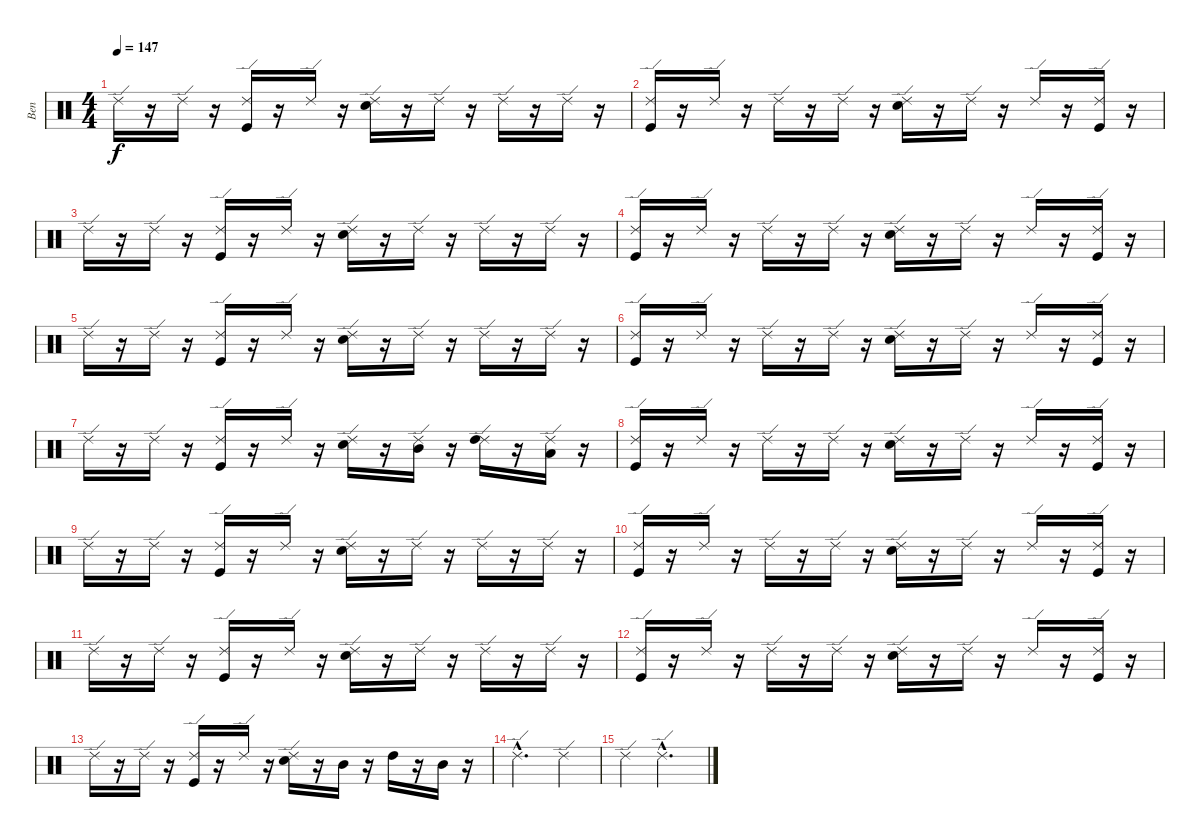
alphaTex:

\track ("Ben" "Ben") {instrument percussion}
\staff {score}
\articulation defaults
\ts (4 4)
\tempo 147
\clef neutral
\ks c "Ride (edge) 2".16{dy f}
r.16 "Ride (edge) 2".16 r.16 ("Ride (edge) 2" "Kick (hit)").16 r.16 "Ride (edge) 2".16 r.16 ("Ride (edge) 2" "Electric Snare (hit)").16 r.16 "Ride (edge) 2".16 r.16 "Ride (edge) 2".16 r.16 "Ride (edge) 2".16 r.16 |
("Ride (edge) 2" "Kick (hit)").16 r.16 "Ride (edge) 2".16 r.16 "Ride (edge) 2".16 r.16 "Ride (edge) 2".16 r.16 ("Ride (edge) 2" "Electric Snare (hit)").16 r.16 "Ride (edge) 2".16 r.16 "Ride (edge) 2".16 r.16 ("Ride (edge) 2" "Kick (hit)").16 r.16 |
"Ride (edge) 2".16 r.16 "Ride (edge) 2".16 r.16 ("Ride (edge) 2" "Kick (hit)").16 r.16 "Ride (edge) 2".16 r.16 ("Ride (edge) 2" "Electric Snare (hit)").16 r.16 "Ride (edge) 2".16 r.16 "Ride (edge) 2".16 r.16 "Ride (edge) 2".16 r.16 |
("Ride (edge) 2" "Kick (hit)").16 r.16 "Ride (edge) 2".16 r.16 "Ride (edge) 2".16 r.16 "Ride (edge) 2".16 r.16 ("Ride (edge) 2" "Electric Snare (hit)").16 r.16 "Ride (edge) 2".16 r.16 "Ride (edge) 2".16 r.16 ("Ride (edge) 2" "Kick (hit)").16 r.16 |
"Ride (edge) 2".16 r.16 "Ride (edge) 2".16 r.16 ("Ride (edge) 2" "Kick (hit)").16 r.16 "Ride (edge) 2".16 r.16 ("Ride (edge) 2" "Electric Snare (hit)").16 r.16 "Ride (edge) 2".16 r.16 "Ride (edge) 2".16 r.16 "Ride (edge) 2".16 r.16 |
("Ride (edge) 2" "Kick (hit)").16 r.16 "Ride (edge) 2".16 r.16 "Ride (edge) 2".16 r.16 "Ride (edge) 2".16 r.16 ("Ride (edge) 2" "Electric Snare (hit)").16 r.16 "Ride (edge) 2".16 r.16 "Ride (edge) 2".16 r.16 ("Ride (edge) 2" "Kick (hit)").16 r.16 |
"Ride (edge) 2".16 r.16 "Ride (edge) 2".16 r.16 ("Ride (edge) 2" "Kick (hit)").16 r.16 "Ride (edge) 2".16 r.16 ("Ride (edge) 2" "Electric Snare (hit)").16 r.16 ("Ride (edge) 2" "Mid Tom (hit)").16 r.16 ("Ride (edge) 2" "High Tom (hit)").16 r.16 ("Ride (edge) 2" "Low Tom (hit)").16 r.16 |
("Ride (edge) 2" "Kick (hit)").16 r.16 "Ride (edge) 2".16 r.16 "Ride (edge) 2".16 r.16 "Ride (edge) 2".16 r.16 ("Ride (edge) 2" "Electric Snare (hit)").16 r.16 "Ride (edge) 2".16 r.16 "Ride (edge) 2".16 r.16 ("Ride (edge) 2" "Kick (hit)").16 r.16 |
"Ride (edge) 2".16 r.16 "Ride (edge) 2".16 r.16 ("Ride (edge) 2" "Kick (hit)").16 r.16 "Ride (edge) 2".16 r.16 ("Ride (edge) 2" "Electric Snare (hit)").16 r.16 "Ride (edge) 2".16 r.16 "Ride (edge) 2".16 r.16 "Ride (edge) 2".16 r.16 |
("Ride (edge) 2" "Kick (hit)").16 r.16 "Ride (edge) 2".16 r.16 "Ride (edge) 2".16 r.16 "Ride (edge) 2".16 r.16 ("Ride (edge) 2" "Electric Snare (hit)").16 r.16 "Ride (edge) 2".16 r.16 "Ride (edge) 2".16 r.16 ("Ride (edge) 2" "Kick (hit)").16 r.16 |
"Ride (edge) 2".16 r.16 "Ride (edge) 2".16 r.16 ("Ride (edge) 2" "Kick (hit)").16 r.16 "Ride (edge) 2".16 r.16 ("Ride (edge) 2" "Electric Snare (hit)").16 r.16 "Ride (edge) 2".16 r.16 "Ride (edge) 2".16 r.16 "Ride (edge) 2".16 r.16 |
("Ride (edge) 2" "Kick (hit)").16 r.16 "Ride (edge) 2".16 r.16 "Ride (edge) 2".16 r.16 "Ride (edge) 2".16 r.16 ("Ride (edge) 2" "Electric Snare (hit)").16 r.16 "Ride (edge) 2".16 r.16 "Ride (edge) 2".16 r.16 ("Ride (edge) 2" "Kick (hit)").16 r.16 |
"Ride (edge) 2".16 r.16 "Ride (edge) 2".16 r.16 ("Ride (edge) 2" "Kick (hit)").16 r.16 "Ride (edge) 2".16 r.16 ("Ride (edge) 2" "Electric Snare (hit)").16 r.16 "Mid Tom (hit)".16 r.16 "High Tom (hit)".16 r.16 "Mid Tom (hit)".16 r.16 |
"Ride (edge) 2"{hac}.2{d} "Ride (edge) 2".4 |
"Ride (edge) 2".4 "Ride (edge) 2"{hac}.2{d}
